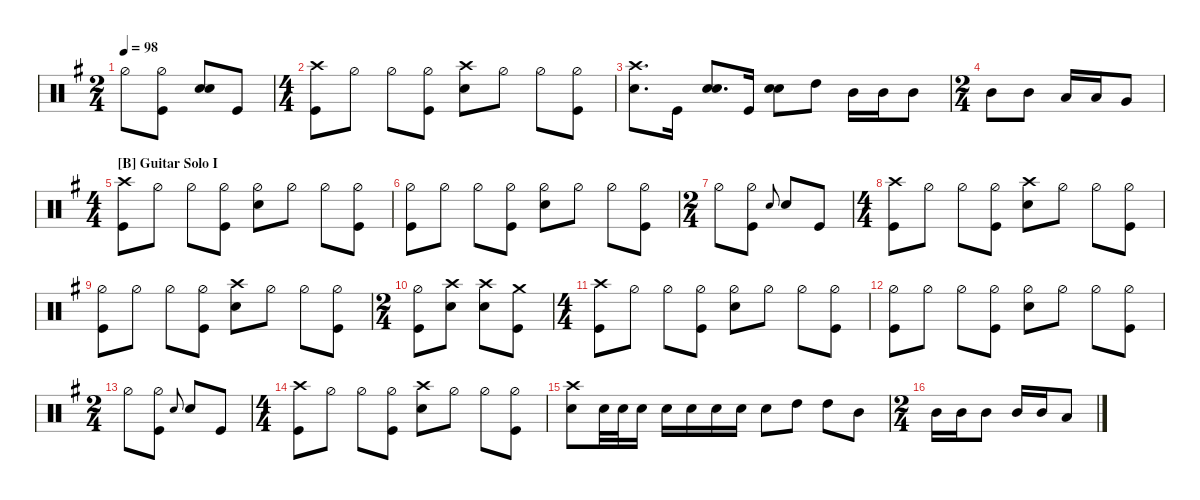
\defaultSystemsLayout 4
\hideDynamics
\bracketExtendMode nobrackets
\track ("Drums" " ") {instrument percussion}
\staff
\articulation defaults
\ts (2 4)
\beaming (8 2 2)
\tempo 98
\clef neutral
\ks eminor "Hi-Hat (half)"{acc forcenatural}.8{dy f}
("Hi-Hat (half)"{acc forcenatural} "Kick (hit)"{acc forcenatural}).8 ("Snare (hit) 2"{acc forcenatural} "Snare (hit) 2"{acc forcenatural}).8 "Kick (hit)"{acc forcenatural}.8 |
\ts (4 4)
\beaming (8 2 2 2 2)
("Kick (hit)"{acc forcenatural} "Crash high (hit)"{acc forcenatural}).8 "Hi-Hat (half)"{acc forcenatural}.8 "Hi-Hat (half)"{acc forcenatural}.8 ("Hi-Hat (half)"{acc forcenatural} "Kick (hit)"{acc forcenatural}).8 ("Snare (hit) 2"{acc forcenatural} "Crash high (hit)"{acc forcenatural}).8 "Hi-Hat (half)"{acc forcenatural}.8 "Hi-Hat (half)"{acc forcenatural}.8 ("Hi-Hat (half)"{acc forcenatural} "Kick (hit)"{acc forcenatural}).8 |
("Crash high (hit)"{acc forcenatural} "Snare (hit) 2"{acc forcenatural}).8{d} "Kick (hit)"{acc forcenatural}.16 ("Snare (hit) 2"{acc forcenatural} "Snare (hit) 2"{acc forcenatural}).8{d} "Kick (hit)"{acc forcenatural}.16 ("Snare (hit) 2"{acc forcenatural} "Snare (hit) 2"{acc forcenatural}).8 "High Tom (hit)"{acc forcenatural}.8{dy ff} "Mid Tom (hit)"{acc forcenatural}.16 "Mid Tom (hit)"{acc forcenatural}.16 "Mid Tom (hit)"{acc forcenatural}.8 |
\ts (2 4)
\beaming (8 2 2)
"Mid Tom (hit)"{acc forcenatural}.8 "Mid Tom (hit)"{acc forcenatural}.8 "Low Tom (hit)"{acc forcenatural}.16 "Low Tom (hit)"{acc forcenatural}.16 "Very Low Tom (hit)"{acc forcenatural}.8 |
\ts (4 4)
\beaming (8 2 2 2 2)
\section ("B" "Guitar Solo I")
("Kick (hit)"{acc forcenatural} "Crash high (hit)"{acc forcenatural}).8{dy f} "Hi-Hat (half)"{acc forcenatural}.8 "Hi-Hat (half)"{acc forcenatural}.8 ("Hi-Hat (half)"{acc forcenatural} "Kick (hit)"{acc forcenatural}).8 ("Hi-Hat (half)"{acc forcenatural} "Snare (hit) 2"{acc forcenatural}).8 "Hi-Hat (half)"{acc forcenatural}.8 "Hi-Hat (half)"{acc forcenatural}.8 ("Hi-Hat (half)"{acc forcenatural} "Kick (hit)"{acc forcenatural}).8 |
("Hi-Hat (half)"{acc forcenatural} "Kick (hit)"{acc forcenatural}).8 "Hi-Hat (half)"{acc forcenatural}.8 "Hi-Hat (half)"{acc forcenatural}.8 ("Hi-Hat (half)"{acc forcenatural} "Kick (hit)"{acc forcenatural}).8 ("Hi-Hat (half)"{acc forcenatural} "Snare (hit) 2"{acc forcenatural}).8 "Hi-Hat (half)"{acc forcenatural}.8 "Hi-Hat (half)"{acc forcenatural}.8 ("Hi-Hat (half)"{acc forcenatural} "Kick (hit)"{acc forcenatural}).8 |
\ts (2 4)
\beaming (8 2 2)
"Hi-Hat (half)"{acc forcenatural}.8 ("Hi-Hat (half)"{acc forcenatural} "Kick (hit)"{acc forcenatural}).8 "Snare (hit) 2"{acc forcenatural}.8{gr onbeat} "Snare (hit) 2"{acc forcenatural}.8 "Kick (hit)"{acc forcenatural}.8 |
\ts (4 4)
\beaming (8 2 2 2 2)
("Kick (hit)"{acc forcenatural} "Crash high (hit)"{acc forcenatural}).8 "Hi-Hat (half)"{acc forcenatural}.8 "Hi-Hat (half)"{acc forcenatural}.8 ("Hi-Hat (half)"{acc forcenatural} "Kick (hit)"{acc forcenatural}).8 ("Snare (hit) 2"{acc forcenatural} "Crash high (hit)"{acc forcenatural}).8 "Hi-Hat (half)"{acc forcenatural}.8 "Hi-Hat (half)"{acc forcenatural}.8 ("Hi-Hat (half)"{acc forcenatural} "Kick (hit)"{acc forcenatural}).8 |
("Hi-Hat (half)"{acc forcenatural} "Kick (hit)"{acc forcenatural}).8 "Hi-Hat (half)"{acc forcenatural}.8 "Hi-Hat (half)"{acc forcenatural}.8 ("Hi-Hat (half)"{acc forcenatural} "Kick (hit)"{acc forcenatural}).8 ("Snare (hit) 2"{acc forcenatural} "Crash high (hit)"{acc forcenatural}).8 "Hi-Hat (half)"{acc forcenatural}.8 "Hi-Hat (half)"{acc forcenatural}.8 ("Hi-Hat (half)"{acc forcenatural} "Kick (hit)"{acc forcenatural}).8 |
\ts (2 4)
\beaming (8 2 2)
("Kick (hit)"{acc forcenatural} "Hi-Hat (half)"{acc forcenatural}).8 ("Snare (hit) 2"{acc forcenatural} "Crash high (hit)"{acc forcenatural}).8 ("Snare (hit) 2"{acc forcenatural} "Crash high (hit)"{acc forcenatural}).8 ("Kick (hit)"{acc forcenatural} "Crash medium (hit)"{acc forcenatural}).8 |
\ts (4 4)
\beaming (8 2 2 2 2)
("Kick (hit)"{acc forcenatural} "Crash high (hit)"{acc forcenatural}).8 "Hi-Hat (half)"{acc forcenatural}.8 "Hi-Hat (half)"{acc forcenatural}.8 ("Hi-Hat (half)"{acc forcenatural} "Kick (hit)"{acc forcenatural}).8 ("Hi-Hat (half)"{acc forcenatural} "Snare (hit) 2"{acc forcenatural}).8 "Hi-Hat (half)"{acc forcenatural}.8 "Hi-Hat (half)"{acc forcenatural}.8 ("Hi-Hat (half)"{acc forcenatural} "Kick (hit)"{acc forcenatural}).8 |
("Hi-Hat (half)"{acc forcenatural} "Kick (hit)"{acc forcenatural}).8 "Hi-Hat (half)"{acc forcenatural}.8 "Hi-Hat (half)"{acc forcenatural}.8 ("Hi-Hat (half)"{acc forcenatural} "Kick (hit)"{acc forcenatural}).8 ("Hi-Hat (half)"{acc forcenatural} "Snare (hit) 2"{acc forcenatural}).8 "Hi-Hat (half)"{acc forcenatural}.8 "Hi-Hat (half)"{acc forcenatural}.8 ("Hi-Hat (half)"{acc forcenatural} "Kick (hit)"{acc forcenatural}).8 |
\ts (2 4)
\beaming (8 2 2)
"Hi-Hat (half)"{acc forcenatural}.8 ("Hi-Hat (half)"{acc forcenatural} "Kick (hit)"{acc forcenatural}).8 "Snare (hit) 2"{acc forcenatural}.8{gr onbeat} "Snare (hit) 2"{acc forcenatural}.8 "Kick (hit)"{acc forcenatural}.8 |
\ts (4 4)
\beaming (8 2 2 2 2)
("Kick (hit)"{acc forcenatural} "Crash high (hit)"{acc forcenatural}).8 "Hi-Hat (half)"{acc forcenatural}.8 "Hi-Hat (half)"{acc forcenatural}.8 ("Hi-Hat (half)"{acc forcenatural} "Kick (hit)"{acc forcenatural}).8 ("Snare (hit) 2"{acc forcenatural} "Crash high (hit)"{acc forcenatural}).8 "Hi-Hat (half)"{acc forcenatural}.8 "Hi-Hat (half)"{acc forcenatural}.8 ("Hi-Hat (half)"{acc forcenatural} "Kick (hit)"{acc forcenatural}).8 |
("Crash high (hit)"{acc forcenatural} "Snare (hit) 2"{acc forcenatural}).8 "Snare (hit) 2"{acc forcenatural}.32{dy p} "Snare (hit) 2"{acc forcenatural}.32 "Snare (hit) 2"{acc forcenatural}.16 "Snare (hit) 2"{acc forcenatural}.16{dy mf} "Snare (hit) 2"{acc forcenatural}.16 "Snare (hit) 2"{acc forcenatural}.16{dy f} "Snare (hit) 2"{acc forcenatural}.16 "Snare (hit) 2"{acc forcenatural}.8{dy ff} "High Tom (hit)"{acc forcenatural}.8{dy fff} "High Tom (hit)"{acc forcenatural}.8 "Mid Tom (hit)"{acc forcenatural}.8 |
\ts (2 4)
\beaming (8 2 2)
"Mid Tom (hit)"{acc forcenatural}.16 "Mid Tom (hit)"{acc forcenatural}.16 "Mid Tom (hit)"{acc forcenatural}.8 "Mid Tom (hit)"{acc forcenatural}.16 "Mid Tom (hit)"{acc forcenatural}.16 "Low Tom (hit)"{acc forcenatural}.8
